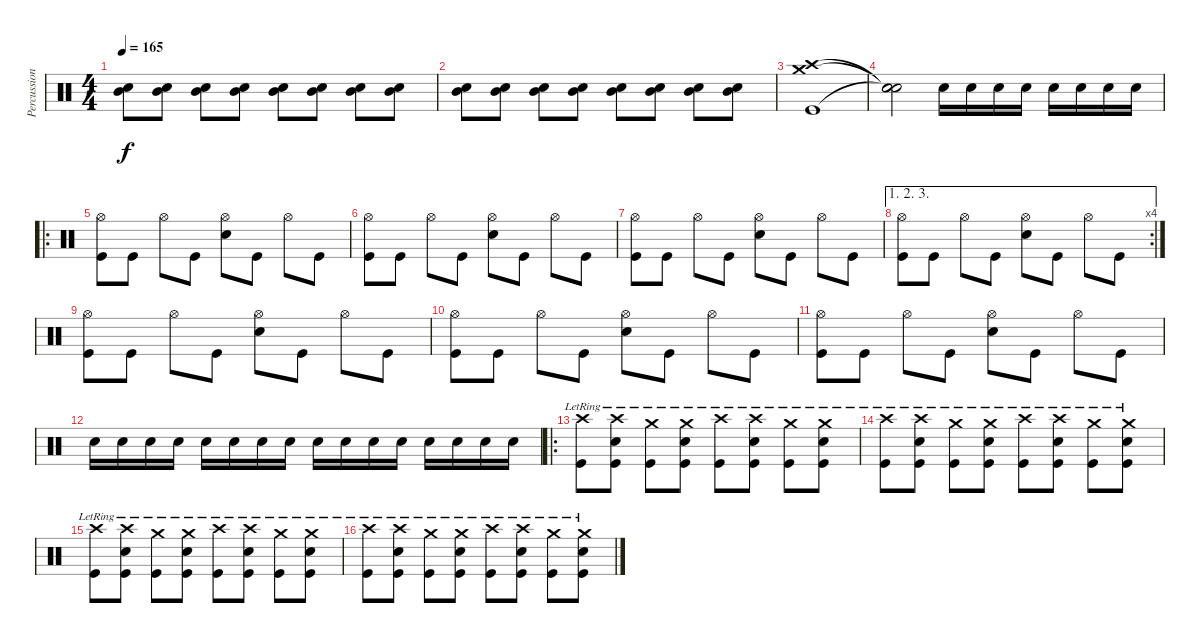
\track ("Percussion" "Percussion") {instrument percussion}
\staff {score}
\articulation defaults
\ts (4 4)
\tempo 165
\clef neutral
\ks c
("Snare (hit) 2" "Mid Tom (hit)").8{dy f volume 2} ("Snare (hit) 2" "Mid Tom (hit)").8{volume 15} ("Snare (hit) 2" "Mid Tom (hit)").8 ("Snare (hit) 2" "Mid Tom (hit)").8 ("Snare (hit) 2" "Mid Tom (hit)").8 ("Snare (hit) 2" "Mid Tom (hit)").8 ("Snare (hit) 2" "Mid Tom (hit)").8 ("Snare (hit) 2" "Mid Tom (hit)").8 |
("Snare (hit) 2" "Mid Tom (hit)").8 ("Snare (hit) 2" "Mid Tom (hit)").8 ("Snare (hit) 2" "Mid Tom (hit)").8 ("Snare (hit) 2" "Mid Tom (hit)").8 ("Snare (hit) 2" "Mid Tom (hit)").8 ("Snare (hit) 2" "Mid Tom (hit)").8 ("Snare (hit) 2" "Mid Tom (hit)").8 ("Snare (hit) 2" "Mid Tom (hit)").8 |
("Crash medium (hit)" "Crash high (hit)" "Kick (hit)").1 |
("Snare (hit)"{t} "Snare (hit)"{t} "Snare (hit)"{t}).2 "Electric Snare (hit)".16 "Electric Snare (hit)".16 "Electric Snare (hit)".16 "Electric Snare (hit)".16 "Electric Snare (hit)".16 "Electric Snare (hit)".16 "Electric Snare (hit)".16 "Electric Snare (hit)".16 |
\ro
("Hi-Hat (open)" "Kick (hit)").8 "Kick (hit)".8 "Hi-Hat (open)".8 "Kick (hit)".8 ("Hi-Hat (open)" "Electric Snare (hit)").8 "Kick (hit)".8 "Hi-Hat (open)".8 "Kick (hit)".8 |
("Hi-Hat (open)" "Kick (hit)").8 "Kick (hit)".8 "Hi-Hat (open)".8 "Kick (hit)".8 ("Hi-Hat (open)" "Electric Snare (hit)").8 "Kick (hit)".8 "Hi-Hat (open)".8 "Kick (hit)".8 |
("Hi-Hat (open)" "Kick (hit)").8 "Kick (hit)".8 "Hi-Hat (open)".8 "Kick (hit)".8 ("Hi-Hat (open)" "Electric Snare (hit)").8 "Kick (hit)".8 "Hi-Hat (open)".8 "Kick (hit)".8 |
\ae (1 2 3)
\rc 4
("Hi-Hat (open)" "Kick (hit)").8 "Kick (hit)".8 "Hi-Hat (open)".8 "Kick (hit)".8 ("Hi-Hat (open)" "Electric Snare (hit)").8 "Kick (hit)".8 "Hi-Hat (open)".8 "Kick (hit)".8 |
("Hi-Hat (open)" "Kick (hit)").8 "Kick (hit)".8 "Hi-Hat (open)".8 "Kick (hit)".8 ("Hi-Hat (open)" "Electric Snare (hit)").8 "Kick (hit)".8 "Hi-Hat (open)".8 "Kick (hit)".8 |
("Hi-Hat (open)" "Kick (hit)").8 "Kick (hit)".8 "Hi-Hat (open)".8 "Kick (hit)".8 ("Hi-Hat (open)" "Electric Snare (hit)").8 "Kick (hit)".8 "Hi-Hat (open)".8 "Kick (hit)".8 |
("Hi-Hat (open)" "Kick (hit)").8 "Kick (hit)".8 "Hi-Hat (open)".8 "Kick (hit)".8 ("Hi-Hat (open)" "Electric Snare (hit)").8 "Kick (hit)".8 "Hi-Hat (open)".8 "Kick (hit)".8 |
"Electric Snare (hit)".16 "Electric Snare (hit)".16 "Electric Snare (hit)".16 "Electric Snare (hit)".16 "Electric Snare (hit)".16 "Electric Snare (hit)".16 "Electric Snare (hit)".16 "Electric Snare (hit)".16 "Electric Snare (hit)".16 "Electric Snare (hit)".16 "Electric Snare (hit)".16 "Electric Snare (hit)".16 "Electric Snare (hit)".16 "Electric Snare (hit)".16 "Electric Snare (hit)".16 "Electric Snare (hit)".16 |
\ro
("Crash high (hit)"{lr} "Kick (hit)").8 ("Crash high (hit)"{lr} "Electric Snare (hit)" "Kick (hit)").8 ("Crash medium (hit)"{lr} "Kick (hit)").8 ("Crash medium (hit)"{lr} "Electric Snare (hit)" "Kick (hit)").8 ("Crash high (hit)"{lr} "Kick (hit)").8 ("Crash high (hit)"{lr} "Electric Snare (hit)" "Kick (hit)").8 ("Crash medium (hit)"{lr} "Kick (hit)").8 ("Crash medium (hit)"{lr} "Electric Snare (hit)" "Kick (hit)").8 |
("Crash high (hit)"{lr} "Kick (hit)").8 ("Crash high (hit)"{lr} "Electric Snare (hit)" "Kick (hit)").8 ("Crash medium (hit)"{lr} "Kick (hit)").8 ("Crash medium (hit)"{lr} "Electric Snare (hit)" "Kick (hit)").8 ("Crash high (hit)"{lr} "Kick (hit)").8 ("Crash high (hit)"{lr} "Electric Snare (hit)" "Kick (hit)").8 ("Crash medium (hit)"{lr} "Kick (hit)").8 ("Crash medium (hit)"{lr} "Electric Snare (hit)" "Kick (hit)").8 |
("Crash high (hit)"{lr} "Kick (hit)").8 ("Crash high (hit)"{lr} "Electric Snare (hit)" "Kick (hit)").8 ("Crash medium (hit)"{lr} "Kick (hit)").8 ("Crash medium (hit)"{lr} "Electric Snare (hit)" "Kick (hit)").8 ("Crash high (hit)"{lr} "Kick (hit)").8 ("Crash high (hit)"{lr} "Electric Snare (hit)" "Kick (hit)").8 ("Crash medium (hit)"{lr} "Kick (hit)").8 ("Crash medium (hit)"{lr} "Electric Snare (hit)" "Kick (hit)").8 |
("Crash high (hit)"{lr} "Kick (hit)").8 ("Crash high (hit)"{lr} "Electric Snare (hit)" "Kick (hit)").8 ("Crash medium (hit)"{lr} "Kick (hit)").8 ("Crash medium (hit)"{lr} "Electric Snare (hit)" "Kick (hit)").8 ("Crash high (hit)"{lr} "Kick (hit)").8 ("Crash high (hit)"{lr} "Electric Snare (hit)" "Kick (hit)").8 ("Crash medium (hit)"{lr} "Kick (hit)").8 ("Crash medium (hit)"{lr} "Electric Snare (hit)" "Kick (hit)").8
